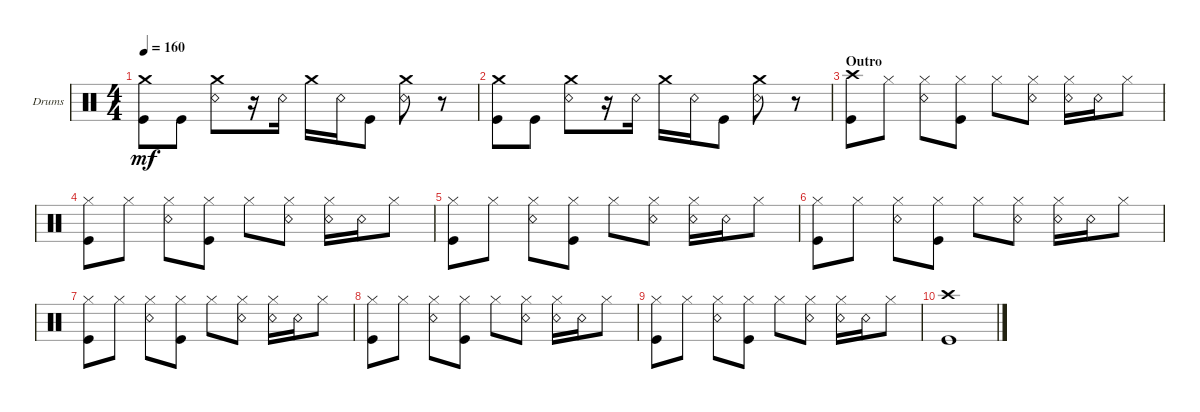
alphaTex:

\defaultSystemsLayout 4
\bracketExtendMode groupsimilarinstruments
\firstSystemTrackNameOrientation horizontal
\otherSystemsTrackNameOrientation horizontal
\track ("Drumkit" "Drums") {instrument percussion}
\staff {score}
\articulation defaults
\ts (4 4)
\tempo 160
\clef neutral
\ks c
("Kick (hit)" "Crash medium (hit)").8{dy mf} "Kick (hit)".8 ("Snare (rim shot)" "Crash medium (hit)").8 r.16 "Snare (rim shot)".16 "Crash medium (hit)".16 "Snare (rim shot)".16 "Kick (hit)".8 ("Snare (rim shot)" "Crash medium (hit)").8 r.8 |
("Kick (hit)" "Crash medium (hit)").8 "Kick (hit)".8 ("Snare (rim shot)" "Crash medium (hit)").8 r.16 "Snare (rim shot)".16 "Crash medium (hit)".16 "Snare (rim shot)".16 "Kick (hit)".8 ("Snare (rim shot)" "Crash medium (hit)").8 r.8 |
\section ("" "Outro")
("Kick (hit)" "Crash high (hit)").8 "Hi-Hat (closed)".8 ("Snare (rim shot)" "Hi-Hat (closed)").8 ("Hi-Hat (closed)" "Kick (hit)").8 "Hi-Hat (closed)".8 ("Snare (rim shot)" "Hi-Hat (closed)").8 ("Snare (rim shot)" "Hi-Hat (closed)").16 "Snare (rim shot)".16 "Hi-Hat (closed)".8 |
("Kick (hit)" "Hi-Hat (closed)").8 "Hi-Hat (closed)".8 ("Snare (rim shot)" "Hi-Hat (closed)").8 ("Hi-Hat (closed)" "Kick (hit)").8 "Hi-Hat (closed)".8 ("Snare (rim shot)" "Hi-Hat (closed)").8 ("Snare (rim shot)" "Hi-Hat (closed)").16 "Snare (rim shot)".16 "Hi-Hat (closed)".8 |
("Kick (hit)" "Hi-Hat (closed)").8 "Hi-Hat (closed)".8 ("Snare (rim shot)" "Hi-Hat (closed)").8 ("Hi-Hat (closed)" "Kick (hit)").8 "Hi-Hat (closed)".8 ("Snare (rim shot)" "Hi-Hat (closed)").8 ("Snare (rim shot)" "Hi-Hat (closed)").16 "Snare (rim shot)".16 "Hi-Hat (closed)".8 |
("Kick (hit)" "Hi-Hat (closed)").8 "Hi-Hat (closed)".8 ("Snare (rim shot)" "Hi-Hat (closed)").8 ("Hi-Hat (closed)" "Kick (hit)").8 "Hi-Hat (closed)".8 ("Snare (rim shot)" "Hi-Hat (closed)").8 ("Snare (rim shot)" "Hi-Hat (closed)").16 "Snare (rim shot)".16 "Hi-Hat (closed)".8 |
("Kick (hit)" "Hi-Hat (closed)").8 "Hi-Hat (closed)".8 ("Snare (rim shot)" "Hi-Hat (closed)").8 ("Hi-Hat (closed)" "Kick (hit)").8 "Hi-Hat (closed)".8 ("Snare (rim shot)" "Hi-Hat (closed)").8 ("Snare (rim shot)" "Hi-Hat (closed)").16 "Snare (rim shot)".16 "Hi-Hat (closed)".8 |
("Kick (hit)" "Hi-Hat (closed)").8 "Hi-Hat (closed)".8 ("Snare (rim shot)" "Hi-Hat (closed)").8 ("Hi-Hat (closed)" "Kick (hit)").8 "Hi-Hat (closed)".8 ("Snare (rim shot)" "Hi-Hat (closed)").8 ("Snare (rim shot)" "Hi-Hat (closed)").16 "Snare (rim shot)".16 "Hi-Hat (closed)".8 |
("Kick (hit)" "Hi-Hat (closed)").8 "Hi-Hat (closed)".8 ("Snare (rim shot)" "Hi-Hat (closed)").8 ("Hi-Hat (closed)" "Kick (hit)").8 "Hi-Hat (closed)".8 ("Snare (rim shot)" "Hi-Hat (closed)").8 ("Snare (rim shot)" "Hi-Hat (closed)").16 "Snare (rim shot)".16 "Hi-Hat (closed)".8 |
("Kick (hit)" "Crash high (hit)").1
